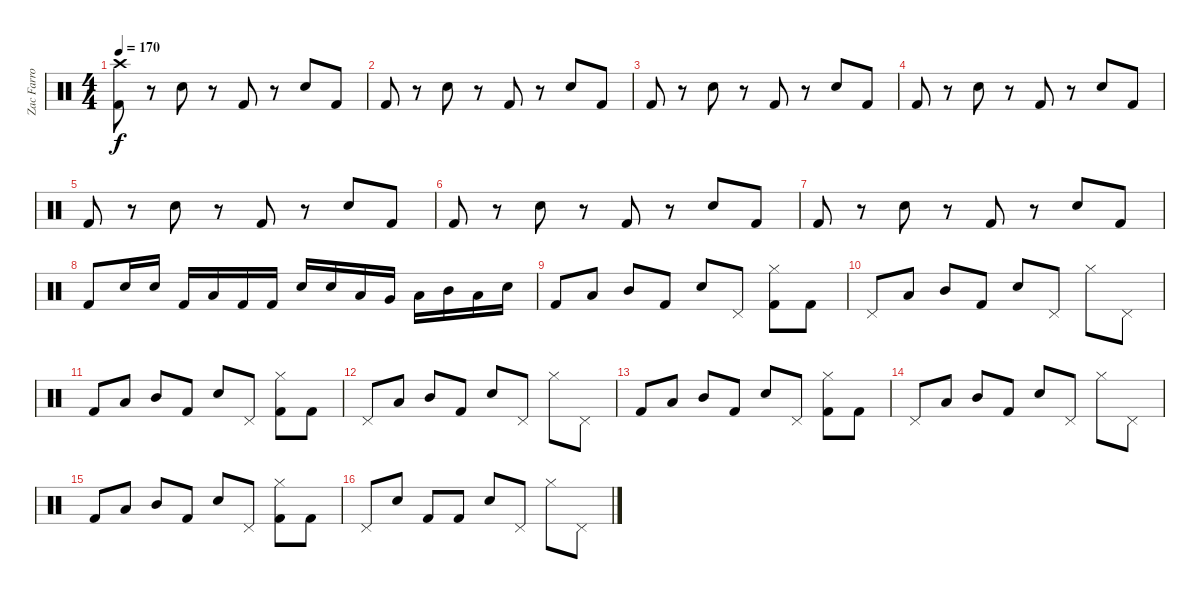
\track ("Zac Farro Drums" "Zac Farro ") {instrument percussion}
\staff {score}
\articulation defaults
\ts (4 4)
\tempo 170
\clef neutral
\ks c
("Crash high (hit)" "Kick (hit) 2").8{dy f} r.8 "Electric Snare (hit)".8 r.8 "Kick (hit) 2".8 r.8 "Electric Snare (hit)".8 "Kick (hit) 2".8 |
"Kick (hit) 2".8 r.8 "Electric Snare (hit)".8 r.8 "Kick (hit) 2".8 r.8 "Electric Snare (hit)".8 "Kick (hit) 2".8 |
"Kick (hit) 2".8 r.8 "Electric Snare (hit)".8 r.8 "Kick (hit) 2".8 r.8 "Electric Snare (hit)".8 "Kick (hit) 2".8 |
"Kick (hit) 2".8 r.8 "Electric Snare (hit)".8 r.8 "Kick (hit) 2".8 r.8 "Electric Snare (hit)".8 "Kick (hit) 2".8 |
"Kick (hit) 2".8 r.8 "Electric Snare (hit)".8 r.8 "Kick (hit) 2".8 r.8 "Electric Snare (hit)".8 "Kick (hit) 2".8 |
"Kick (hit) 2".8 r.8 "Electric Snare (hit)".8 r.8 "Kick (hit) 2".8 r.8 "Electric Snare (hit)".8 "Kick (hit) 2".8 |
"Kick (hit) 2".8 r.8 "Electric Snare (hit)".8 r.8 "Kick (hit) 2".8 r.8 "Electric Snare (hit)".8 "Kick (hit) 2".8 |
"Kick (hit) 2".8 "Electric Snare (hit)".16 "Electric Snare (hit)".16 "Kick (hit) 2".16 "Low Tom (hit)".16 "Kick (hit) 2".16 "Kick (hit) 2".16 "Electric Snare (hit)".16 "Electric Snare (hit)".16 "Low Floor Tom (hit)".16 "Very Low Tom (hit)".16 "Low Tom (hit)".16 "Mid Tom (hit)".16 "Low Tom (hit)".16 "Electric Snare (hit)".16 |
"Kick (hit) 2".8 "Low Tom (hit)".8 "Mid Tom (hit)".8 "Kick (hit) 2".8 "Electric Snare (hit)".8 "Pedal Hi-Hat (hit)".8 ("Hi-Hat (closed)" "Kick (hit) 2").8 "Kick (hit) 2".8 |
"Pedal Hi-Hat (hit)".8 "Low Tom (hit)".8 "Mid Tom (hit)".8 "Kick (hit) 2".8 "Electric Snare (hit)".8 "Pedal Hi-Hat (hit)".8 "Hi-Hat (closed)".8 "Pedal Hi-Hat (hit)".8 |
"Kick (hit) 2".8 "Low Tom (hit)".8 "Mid Tom (hit)".8 "Kick (hit) 2".8 "Electric Snare (hit)".8 "Pedal Hi-Hat (hit)".8 ("Hi-Hat (closed)" "Kick (hit) 2").8 "Kick (hit) 2".8 |
"Pedal Hi-Hat (hit)".8 "Low Tom (hit)".8 "Mid Tom (hit)".8 "Kick (hit) 2".8 "Electric Snare (hit)".8 "Pedal Hi-Hat (hit)".8 "Hi-Hat (closed)".8 "Pedal Hi-Hat (hit)".8 |
"Kick (hit) 2".8 "Low Tom (hit)".8 "Mid Tom (hit)".8 "Kick (hit) 2".8 "Electric Snare (hit)".8 "Pedal Hi-Hat (hit)".8 ("Hi-Hat (closed)" "Kick (hit) 2").8 "Kick (hit) 2".8 |
"Pedal Hi-Hat (hit)".8 "Low Tom (hit)".8 "Mid Tom (hit)".8 "Kick (hit) 2".8 "Electric Snare (hit)".8 "Pedal Hi-Hat (hit)".8 "Hi-Hat (closed)".8 "Pedal Hi-Hat (hit)".8 |
"Kick (hit) 2".8 "Low Tom (hit)".8 "Mid Tom (hit)".8 "Kick (hit) 2".8 "Electric Snare (hit)".8 "Pedal Hi-Hat (hit)".8 ("Hi-Hat (closed)" "Kick (hit) 2").8 "Kick (hit) 2".8 |
"Pedal Hi-Hat (hit)".8 "Electric Snare (hit)".8 "Kick (hit) 2".8 "Kick (hit) 2".8 "Electric Snare (hit)".8 "Pedal Hi-Hat (hit)".8 "Hi-Hat (closed)".8 "Pedal Hi-Hat (hit)".8
